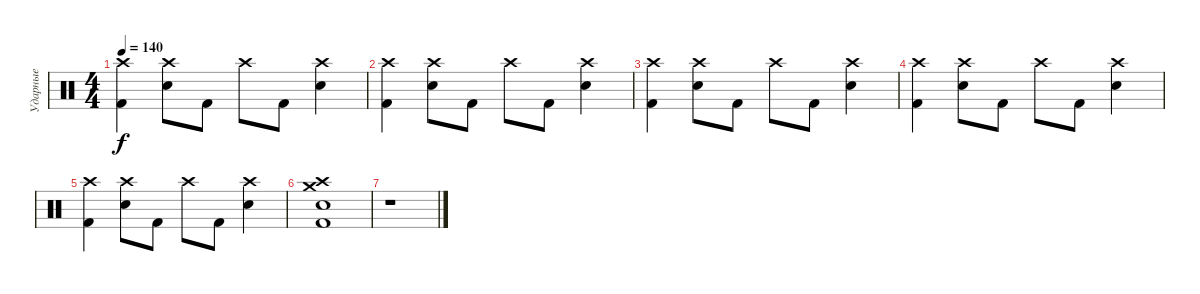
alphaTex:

\track ("Ударные" "Ударные") {instrument percussion}
\staff {score}
\articulation defaults
\ts (4 4)
\tempo 140
\clef neutral
\ks c
("Crash high (hit)" "Kick (hit) 2").4{dy f} ("Crash high (hit)" "Electric Snare (hit)").8 "Kick (hit) 2".8 "Crash high (hit)".8 "Kick (hit) 2".8 ("Crash high (hit)" "Electric Snare (hit)").4 |
("Crash high (hit)" "Kick (hit) 2").4 ("Crash high (hit)" "Electric Snare (hit)").8 "Kick (hit) 2".8 "Crash high (hit)".8 "Kick (hit) 2".8 ("Crash high (hit)" "Electric Snare (hit)").4 |
("Crash high (hit)" "Kick (hit) 2").4 ("Crash high (hit)" "Electric Snare (hit)").8 "Kick (hit) 2".8 "Crash high (hit)".8 "Kick (hit) 2".8 ("Crash high (hit)" "Electric Snare (hit)").4 |
("Crash high (hit)" "Kick (hit) 2").4 ("Crash high (hit)" "Electric Snare (hit)").8 "Kick (hit) 2".8 "Crash high (hit)".8 "Kick (hit) 2".8 ("Crash high (hit)" "Electric Snare (hit)").4 |
("Crash high (hit)" "Kick (hit) 2").4 ("Crash high (hit)" "Electric Snare (hit)").8 "Kick (hit) 2".8 "Crash high (hit)".8 "Kick (hit) 2".8 ("Crash high (hit)" "Electric Snare (hit)").4 |
("Crash high (hit)" "Electric Snare (hit)" "Kick (hit) 2" "Crash medium (hit)").1 |
r.1
